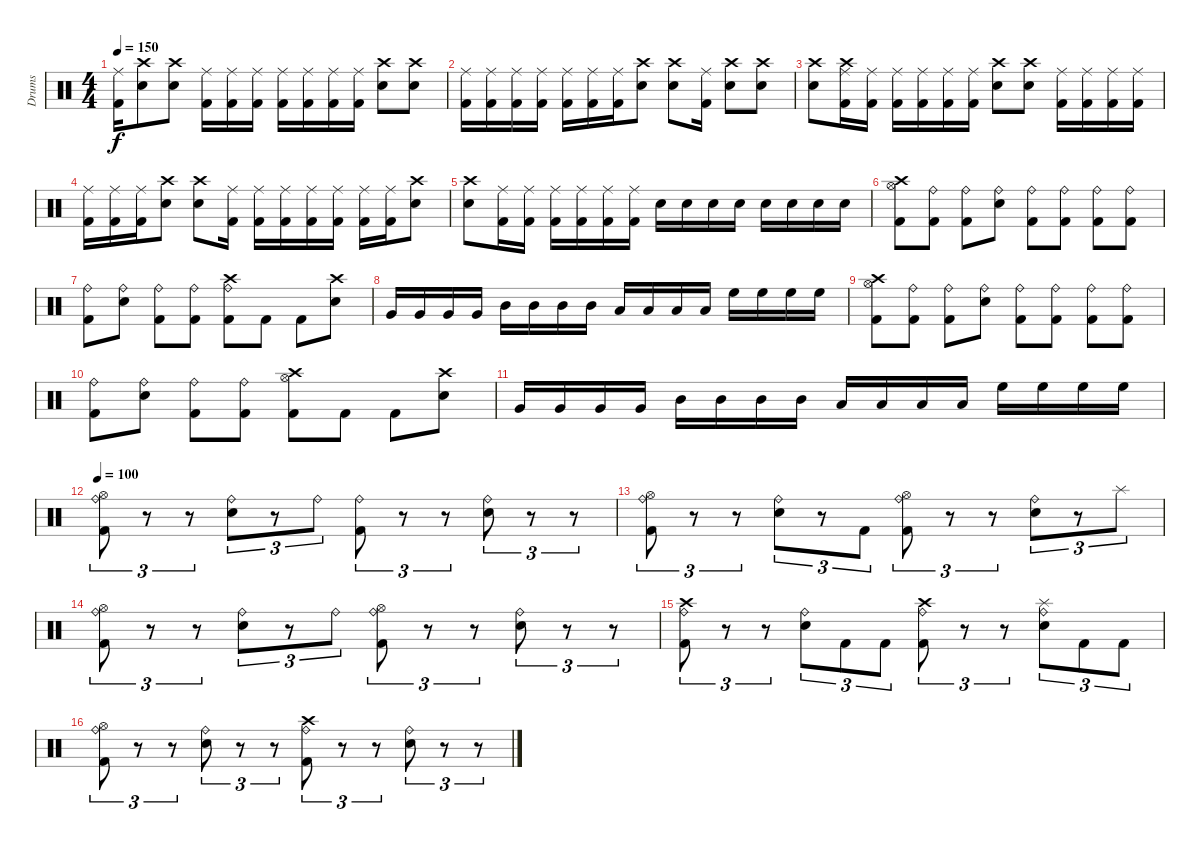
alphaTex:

\track ("Drums" "Drums") {instrument percussion}
\staff {score}
\articulation defaults
\ts (4 4)
\tempo 150
\clef neutral
\ks c
("Ride (middle)" "Kick (hit) 2").16{dy f} ("Crash high (hit)" "Snare (hit) 2").8 ("Crash high (hit)" "Snare (hit) 2").8 ("Ride (middle)" "Kick (hit) 2").16 ("Ride (middle)" "Kick (hit) 2").16 ("Ride (middle)" "Kick (hit) 2").16 ("Ride (middle)" "Kick (hit) 2").16 ("Ride (middle)" "Kick (hit) 2").16 ("Ride (middle)" "Kick (hit) 2").16 ("Ride (middle)" "Kick (hit) 2").16 ("Crash high (hit)" "Snare (hit) 2").8 ("Crash high (hit)" "Snare (hit) 2").8 |
("Ride (middle)" "Kick (hit) 2").16 ("Ride (middle)" "Kick (hit) 2").16 ("Ride (middle)" "Kick (hit) 2").16 ("Ride (middle)" "Kick (hit) 2").16 ("Ride (middle)" "Kick (hit) 2").16 ("Ride (middle)" "Kick (hit) 2").16 ("Ride (middle)" "Kick (hit) 2").16 ("Crash high (hit)" "Snare (hit) 2").8 ("Crash high (hit)" "Snare (hit) 2").8 ("Ride (middle)" "Kick (hit) 2").16 ("Crash high (hit)" "Snare (hit) 2").8 ("Crash high (hit)" "Snare (hit) 2").8 |
("Crash high (hit)" "Snare (hit) 2").8 ("Crash high (hit)" "Ride (middle)" "Kick (hit) 2").16 ("Ride (middle)" "Kick (hit) 2").16 ("Ride (middle)" "Kick (hit) 2").16 ("Ride (middle)" "Kick (hit) 2").16 ("Ride (middle)" "Kick (hit) 2").16 ("Ride (middle)" "Kick (hit) 2").16 ("Crash high (hit)" "Snare (hit) 2").8 ("Crash high (hit)" "Snare (hit) 2").8 ("Ride (middle)" "Kick (hit) 2").16 ("Ride (middle)" "Kick (hit) 2").16 ("Ride (middle)" "Kick (hit) 2").16 ("Ride (middle)" "Kick (hit) 2").16 |
("Ride (middle)" "Kick (hit) 2").16 ("Ride (middle)" "Kick (hit) 2").16 ("Ride (middle)" "Kick (hit) 2").16 ("Crash high (hit)" "Snare (hit) 2").8 ("Crash high (hit)" "Snare (hit) 2").8 ("Ride (middle)" "Kick (hit) 2").16 ("Ride (middle)" "Kick (hit) 2").16 ("Ride (middle)" "Kick (hit) 2").16 ("Ride (middle)" "Kick (hit) 2").16 ("Ride (middle)" "Kick (hit) 2").16 ("Ride (middle)" "Kick (hit) 2").16 ("Ride (middle)" "Kick (hit) 2").16 ("Crash high (hit)" "Snare (hit) 2").8 |
("Crash high (hit)" "Snare (hit) 2").8 ("Ride (middle)" "Kick (hit) 2").16 ("Ride (middle)" "Kick (hit) 2").16 ("Ride (middle)" "Kick (hit) 2").16 ("Ride (middle)" "Kick (hit) 2").16 ("Ride (middle)" "Kick (hit) 2").16 ("Ride (middle)" "Kick (hit) 2").16 "Snare (hit) 2".16 "Snare (hit) 2".16 "Snare (hit) 2".16 "Snare (hit) 2".16 "Snare (hit) 2".16 "Snare (hit) 2".16 "Snare (hit) 2".16 "Snare (hit) 2".16 |
("Crash high (hit)" "Kick (hit) 2" "Hi-Hat (open)").8 ("Ride (bell)" "Kick (hit) 2").8 ("Ride (bell)" "Kick (hit) 2").8 ("Ride (bell)" "Snare (hit) 2").8 ("Ride (bell)" "Kick (hit) 2").8 ("Ride (bell)" "Kick (hit) 2").8 ("Ride (bell)" "Kick (hit) 2").8 ("Ride (bell)" "Kick (hit) 2").8 |
("Ride (bell)" "Kick (hit) 2").8 ("Ride (bell)" "Snare (hit) 2").8 ("Ride (bell)" "Kick (hit) 2").8 ("Ride (bell)" "Kick (hit) 2").8 ("Crash high (hit)" "Ride (bell)" "Kick (hit) 2").8 "Kick (hit) 2".8 "Kick (hit) 2".8 ("Crash high (hit)" "Snare (hit) 2").8 |
"Very Low Tom (hit)".16 "Very Low Tom (hit)".16 "Very Low Tom (hit)".16 "Very Low Tom (hit)".16 "Mid Tom (hit)".16 "Mid Tom (hit)".16 "Mid Tom (hit)".16 "Mid Tom (hit)".16 "Low Tom (hit)".16 "Low Tom (hit)".16 "Low Tom (hit)".16 "Low Tom (hit)".16 "High Floor Tom (hit)".16 "High Floor Tom (hit)".16 "High Floor Tom (hit)".16 "High Floor Tom (hit)".16 |
("Crash high (hit)" "Kick (hit) 2" "Hi-Hat (open)").8 ("Ride (bell)" "Kick (hit) 2").8 ("Ride (bell)" "Kick (hit) 2").8 ("Ride (bell)" "Snare (hit) 2").8 ("Ride (bell)" "Kick (hit) 2").8 ("Ride (bell)" "Kick (hit) 2").8 ("Ride (bell)" "Kick (hit) 2").8 ("Ride (bell)" "Kick (hit) 2").8 |
("Ride (bell)" "Kick (hit) 2").8 ("Ride (bell)" "Snare (hit) 2").8 ("Ride (bell)" "Kick (hit) 2").8 ("Ride (bell)" "Kick (hit) 2").8 ("Crash high (hit)" "Hi-Hat (open)" "Kick (hit) 2").8 "Kick (hit) 2".8 "Kick (hit) 2".8 ("Crash high (hit)" "Snare (hit) 2").8 |
"Very Low Tom (hit)".16 "Very Low Tom (hit)".16 "Very Low Tom (hit)".16 "Very Low Tom (hit)".16 "Mid Tom (hit)".16 "Mid Tom (hit)".16 "Mid Tom (hit)".16 "Mid Tom (hit)".16 "Low Tom (hit)".16 "Low Tom (hit)".16 "Low Tom (hit)".16 "Low Tom (hit)".16 "High Floor Tom (hit)".16 "High Floor Tom (hit)".16 "High Floor Tom (hit)".16 "High Floor Tom (hit)".16 |
\tempo 100
("Hi-Hat (open)" "Ride (bell)" "Kick (hit) 2").8{tu (3 2)} r.8{tu (3 2)} r.8{tu (3 2)} ("Ride (bell)" "Electric Snare (hit)").8{tu (3 2)} r.8{tu (3 2)} "Ride (bell)".8{tu (3 2)} ("Ride (bell)" "Kick (hit) 2").8{tu (3 2)} r.8{tu (3 2)} r.8{tu (3 2)} ("Ride (bell)" "Electric Snare (hit)").8{tu (3 2)} r.8{tu (3 2)} r.8{tu (3 2)} |
("Hi-Hat (open)" "Ride (bell)" "Kick (hit) 2").8{tu (3 2)} r.8{tu (3 2)} r.8{tu (3 2)} ("Ride (bell)" "Electric Snare (hit)").8{tu (3 2)} r.8{tu (3 2)} "Kick (hit) 2".8{tu (3 2)} ("Hi-Hat (open)" "Ride (bell)" "Kick (hit) 2").8{tu (3 2)} r.8{tu (3 2)} r.8{tu (3 2)} ("Ride (bell)" "Electric Snare (hit)").8{tu (3 2)} r.8{tu (3 2)} "Splash (hit)".8{tu (3 2)} |
("Hi-Hat (open)" "Ride (bell)" "Kick (hit) 2").8{tu (3 2)} r.8{tu (3 2)} r.8{tu (3 2)} ("Ride (bell)" "Electric Snare (hit)").8{tu (3 2)} r.8{tu (3 2)} "Ride (bell)".8{tu (3 2)} ("Hi-Hat (open)" "Ride (bell)" "Kick (hit) 2").8{tu (3 2)} r.8{tu (3 2)} r.8{tu (3 2)} ("Ride (bell)" "Electric Snare (hit)").8{tu (3 2)} r.8{tu (3 2)} r.8{tu (3 2)} |
("Crash high (hit)" "Ride (bell)" "Kick (hit) 2").8{tu (3 2)} r.8{tu (3 2)} r.8{tu (3 2)} ("Ride (bell)" "Electric Snare (hit)").8{tu (3 2)} "Kick (hit) 2".8{tu (3 2)} "Kick (hit) 2".8{tu (3 2)} ("Crash high (hit)" "Ride (bell)" "Kick (hit) 2").8{tu (3 2)} r.8{tu (3 2)} r.8{tu (3 2)} ("Splash (hit)" "Ride (bell)" "Electric Snare (hit)").8{tu (3 2)} "Kick (hit) 2".8{tu (3 2)} "Kick (hit) 2".8{tu (3 2)} |
("Hi-Hat (open)" "Ride (bell)" "Kick (hit) 2").8{tu (3 2)} r.8{tu (3 2)} r.8{tu (3 2)} ("Ride (bell)" "Electric Snare (hit)").8{tu (3 2)} r.8{tu (3 2)} r.8{tu (3 2)} ("Crash high (hit)" "Ride (bell)" "Kick (hit) 2").8{tu (3 2)} r.8{tu (3 2)} r.8{tu (3 2)} ("Ride (bell)" "Electric Snare (hit)").8{tu (3 2)} r.8{tu (3 2)} r.8{tu (3 2)}
